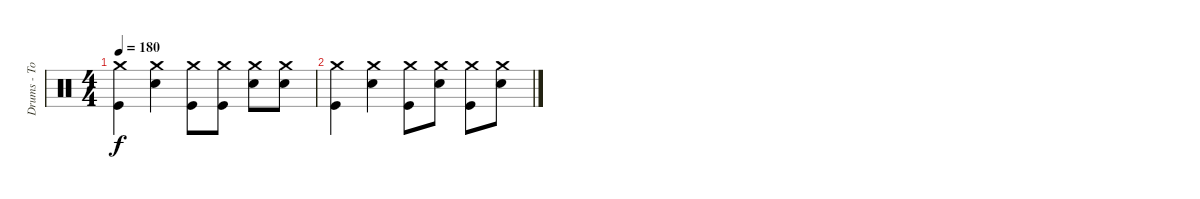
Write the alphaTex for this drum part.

\track ("Drums - Tom" "Drums - To") {instrument percussion}
\staff {score}
\articulation defaults
\ts (4 4)
\tempo 180
\clef neutral
\ks c
("Crash medium (hit)" "Kick (hit)").4{dy f} ("Crash medium (hit)" "Snare (hit) 2").4 ("Crash medium (hit)" "Kick (hit)").8 ("Crash medium (hit)" "Kick (hit)").8 ("Crash medium (hit)" "Snare (hit) 2").8 ("Crash medium (hit)" "Snare (hit) 2").8 |
("Crash medium (hit)" "Kick (hit)").4 ("Crash medium (hit)" "Snare (hit) 2").4 ("Crash medium (hit)" "Kick (hit)").8 ("Crash medium (hit)" "Snare (hit) 2").8 ("Crash medium (hit)" "Kick (hit)").8 ("Crash medium (hit)" "Snare (hit) 2").8
